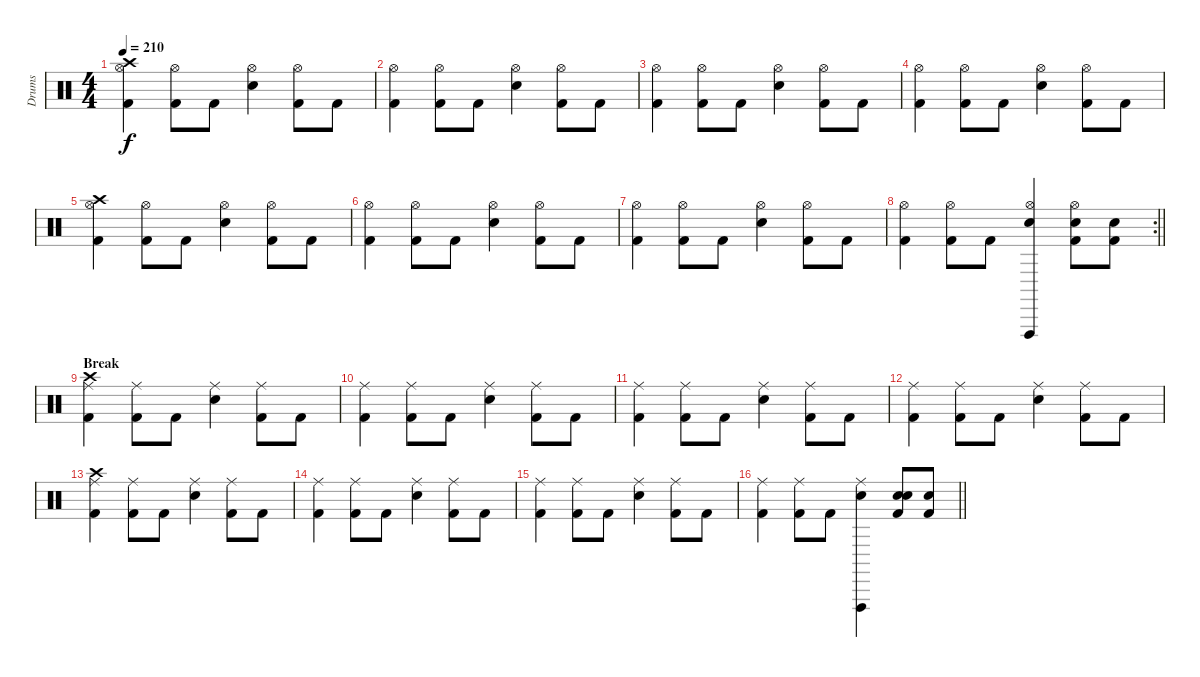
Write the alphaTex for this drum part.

\track ("Drums" "Drums") {instrument percussion}
\staff {score}
\articulation defaults
\ts (4 4)
\tempo 210
\clef neutral
\ks c
("Crash high (hit)" "Hi-Hat (open)" "Kick (hit) 2").4{dy f} ("Hi-Hat (open)" "Kick (hit) 2").8 "Kick (hit) 2".8 ("Hi-Hat (open)" "Snare (hit) 2").4 ("Hi-Hat (open)" "Kick (hit) 2").8 "Kick (hit) 2".8 |
("Hi-Hat (open)" "Kick (hit) 2").4 ("Hi-Hat (open)" "Kick (hit) 2").8 "Kick (hit) 2".8 ("Hi-Hat (open)" "Snare (hit) 2").4 ("Hi-Hat (open)" "Kick (hit) 2").8 "Kick (hit) 2".8 |
("Hi-Hat (open)" "Kick (hit) 2").4 ("Hi-Hat (open)" "Kick (hit) 2").8 "Kick (hit) 2".8 ("Hi-Hat (open)" "Snare (hit) 2").4 ("Hi-Hat (open)" "Kick (hit) 2").8 "Kick (hit) 2".8 |
("Hi-Hat (open)" "Kick (hit) 2").4 ("Hi-Hat (open)" "Kick (hit) 2").8 "Kick (hit) 2".8 ("Hi-Hat (open)" "Snare (hit) 2").4 ("Hi-Hat (open)" "Kick (hit) 2").8 "Kick (hit) 2".8 |
("Crash high (hit)" "Hi-Hat (open)" "Kick (hit) 2").4 ("Hi-Hat (open)" "Kick (hit) 2").8 "Kick (hit) 2".8 ("Hi-Hat (open)" "Snare (hit) 2").4 ("Hi-Hat (open)" "Kick (hit) 2").8 "Kick (hit) 2".8 |
("Hi-Hat (open)" "Kick (hit) 2").4 ("Hi-Hat (open)" "Kick (hit) 2").8 "Kick (hit) 2".8 ("Hi-Hat (open)" "Snare (hit) 2").4 ("Hi-Hat (open)" "Kick (hit) 2").8 "Kick (hit) 2".8 |
("Hi-Hat (open)" "Kick (hit) 2").4 ("Hi-Hat (open)" "Kick (hit) 2").8 "Kick (hit) 2".8 ("Hi-Hat (open)" "Snare (hit) 2").4 ("Hi-Hat (open)" "Kick (hit) 2").8 "Kick (hit) 2".8 |
\rc 2
\barLineRight lightlight
("Hi-Hat (open)" "Kick (hit) 2").4 ("Hi-Hat (open)" "Kick (hit) 2").8 "Kick (hit) 2".8 ("Vibraslap (hit)" "Hi-Hat (open)" "Snare (hit) 2").4 ("Hi-Hat (open)" "Snare (hit) 2" "Kick (hit) 2").8 ("Snare (hit) 2" "Kick (hit) 2").8 |
\section ("" "Break")
("Crash high (hit)" "Ride (middle)" "Kick (hit) 2").4 ("Ride (middle)" "Kick (hit) 2").8 "Kick (hit) 2".8 ("Ride (middle)" "Snare (hit) 2").4 ("Ride (middle)" "Kick (hit) 2").8 "Kick (hit) 2".8 |
("Ride (middle)" "Kick (hit) 2").4 ("Ride (middle)" "Kick (hit) 2").8 "Kick (hit) 2".8 ("Ride (middle)" "Snare (hit) 2").4 ("Ride (middle)" "Kick (hit) 2").8 "Kick (hit) 2".8 |
("Ride (middle)" "Kick (hit) 2").4 ("Ride (middle)" "Kick (hit) 2").8 "Kick (hit) 2".8 ("Ride (middle)" "Snare (hit) 2").4 ("Ride (middle)" "Kick (hit) 2").8 "Kick (hit) 2".8 |
("Ride (middle)" "Kick (hit) 2").4 ("Ride (middle)" "Kick (hit) 2").8 "Kick (hit) 2".8 ("Ride (middle)" "Snare (hit) 2").4 ("Ride (middle)" "Kick (hit) 2").8 "Kick (hit) 2".8 |
("Crash high (hit)" "Ride (middle)" "Kick (hit) 2").4 ("Ride (middle)" "Kick (hit) 2").8 "Kick (hit) 2".8 ("Ride (middle)" "Snare (hit) 2").4 ("Ride (middle)" "Kick (hit) 2").8 "Kick (hit) 2".8 |
("Ride (middle)" "Kick (hit) 2").4 ("Ride (middle)" "Kick (hit) 2").8 "Kick (hit) 2".8 ("Ride (middle)" "Snare (hit) 2").4 ("Ride (middle)" "Kick (hit) 2").8 "Kick (hit) 2".8 |
("Ride (middle)" "Kick (hit) 2").4 ("Ride (middle)" "Kick (hit) 2").8 "Kick (hit) 2".8 ("Ride (middle)" "Snare (hit) 2").4 ("Ride (middle)" "Kick (hit) 2").8 "Kick (hit) 2".8 |
\barLineRight lightlight
("Ride (middle)" "Kick (hit) 2").4 ("Ride (middle)" "Kick (hit) 2").8 "Kick (hit) 2".8 ("Vibraslap (hit)" "Ride (middle)" "Snare (hit) 2").4 ("Snare (hit)" "Snare (hit) 2" "Kick (hit) 2").8 ("Snare (hit) 2" "Kick (hit) 2").8
